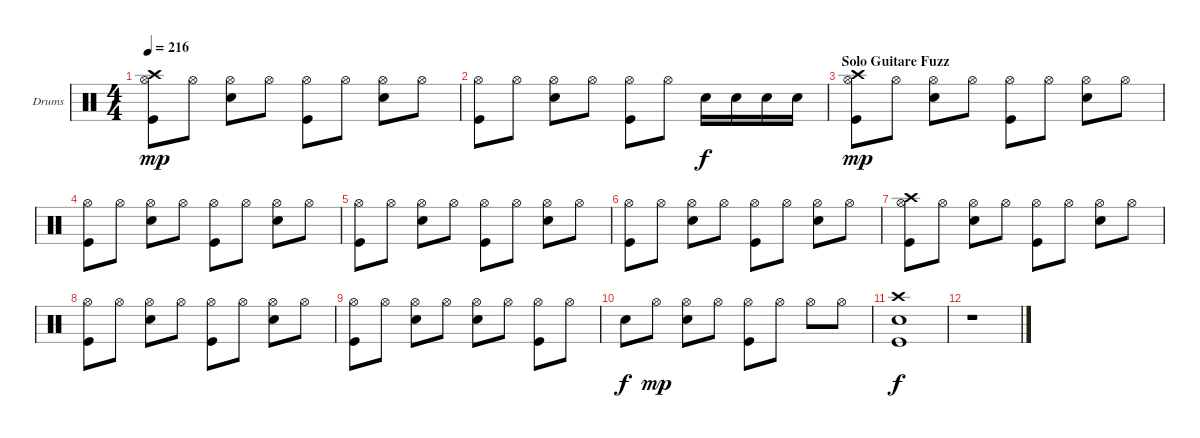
\bracketExtendMode groupsimilarinstruments
\firstSystemTrackNameOrientation horizontal
\otherSystemsTrackNameOrientation horizontal
\chordDiagramsInScore
\track ("Drumkit" "Drums") {instrument percussion}
\staff {score}
\articulation defaults
\ts (4 4)
\tempo 216
\clef neutral
\ks c
("Hi-Hat (open)" "Crash high (hit)" "Kick (hit)").8{dy mp} "Hi-Hat (open)".8 ("Hi-Hat (open)" "Snare (hit) 2").8 "Hi-Hat (open)".8 ("Hi-Hat (open)" "Kick (hit)").8 "Hi-Hat (open)".8 ("Hi-Hat (open)" "Snare (hit) 2").8 "Hi-Hat (open)".8 |
("Hi-Hat (open)" "Kick (hit)").8 "Hi-Hat (open)".8 ("Hi-Hat (open)" "Snare (hit) 2").8 "Hi-Hat (open)".8 ("Hi-Hat (open)" "Kick (hit)").8 "Hi-Hat (open)".8 "Snare (hit) 2".16{dy f} "Snare (hit) 2".16 "Snare (hit) 2".16 "Snare (hit) 2".16 |
\section ("" "Solo Guitare Fuzz")
("Hi-Hat (open)" "Crash high (hit)" "Kick (hit)").8{dy mp} "Hi-Hat (open)".8 ("Hi-Hat (open)" "Snare (hit) 2").8 "Hi-Hat (open)".8 ("Hi-Hat (open)" "Kick (hit)").8 "Hi-Hat (open)".8 ("Hi-Hat (open)" "Snare (hit) 2").8 "Hi-Hat (open)".8 |
("Hi-Hat (open)" "Kick (hit)").8 "Hi-Hat (open)".8 ("Hi-Hat (open)" "Snare (hit) 2").8 "Hi-Hat (open)".8 ("Hi-Hat (open)" "Kick (hit)").8 "Hi-Hat (open)".8 ("Hi-Hat (open)" "Snare (hit) 2").8 "Hi-Hat (open)".8 |
("Hi-Hat (open)" "Kick (hit)").8 "Hi-Hat (open)".8 ("Hi-Hat (open)" "Snare (hit) 2").8 "Hi-Hat (open)".8 ("Hi-Hat (open)" "Kick (hit)").8 "Hi-Hat (open)".8 ("Hi-Hat (open)" "Snare (hit) 2").8 "Hi-Hat (open)".8 |
("Hi-Hat (open)" "Kick (hit)").8 "Hi-Hat (open)".8 ("Hi-Hat (open)" "Snare (hit) 2").8 "Hi-Hat (open)".8 ("Hi-Hat (open)" "Kick (hit)").8 "Hi-Hat (open)".8 ("Hi-Hat (open)" "Snare (hit) 2").8 "Hi-Hat (open)".8 |
("Hi-Hat (open)" "Crash high (hit)" "Kick (hit)").8 "Hi-Hat (open)".8 ("Hi-Hat (open)" "Snare (hit) 2").8 "Hi-Hat (open)".8 ("Hi-Hat (open)" "Kick (hit)").8 "Hi-Hat (open)".8 ("Hi-Hat (open)" "Snare (hit) 2").8 "Hi-Hat (open)".8 |
("Hi-Hat (open)" "Kick (hit)").8 "Hi-Hat (open)".8 ("Hi-Hat (open)" "Snare (hit) 2").8 "Hi-Hat (open)".8 ("Hi-Hat (open)" "Kick (hit)").8 "Hi-Hat (open)".8 ("Hi-Hat (open)" "Snare (hit) 2").8 "Hi-Hat (open)".8 |
("Hi-Hat (open)" "Kick (hit)").8 "Hi-Hat (open)".8 ("Hi-Hat (open)" "Snare (hit) 2").8 "Hi-Hat (open)".8 ("Hi-Hat (open)" "Snare (hit) 2").8 "Hi-Hat (open)".8 ("Hi-Hat (open)" "Kick (hit)").8 "Hi-Hat (open)".8 |
"Snare (hit) 2".8{dy f} "Hi-Hat (open)".8{dy mp} ("Hi-Hat (open)" "Snare (hit) 2").8 "Hi-Hat (open)".8 ("Hi-Hat (open)" "Kick (hit)").8 "Hi-Hat (open)".8 "Hi-Hat (open)".8 "Hi-Hat (open)".8 |
("Crash high (hit)" "Snare (hit) 2" "Kick (hit)").1{dy f} |
r.1
